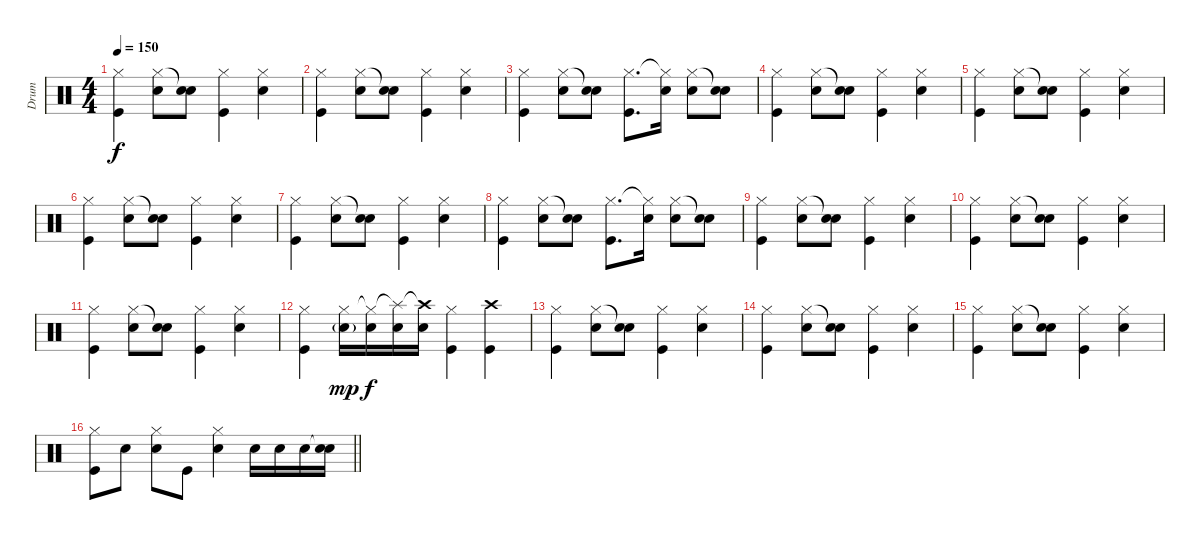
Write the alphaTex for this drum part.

\track ("Drum" "Drum") {instrument percussion}
\staff {score}
\articulation defaults
\ts (4 4)
\tempo 150
\clef neutral
\ks c
("Hi-Hat (closed)" "Kick (hit)").4{dy f} ("Hi-Hat (closed)" "Snare (hit) 2").8 ("Snare (hit)"{t} "Snare (hit) 2").8 ("Hi-Hat (closed)" "Kick (hit)").4 ("Hi-Hat (closed)" "Snare (hit) 2").4 |
("Hi-Hat (closed)" "Kick (hit)").4 ("Hi-Hat (closed)" "Snare (hit) 2").8 ("Snare (hit)"{t} "Snare (hit) 2").8 ("Hi-Hat (closed)" "Kick (hit)").4 ("Hi-Hat (closed)" "Snare (hit) 2").4 |
("Hi-Hat (closed)" "Kick (hit)").4 ("Hi-Hat (closed)" "Snare (hit) 2").8 ("Snare (hit)"{t} "Snare (hit) 2").8 ("Hi-Hat (closed)" "Kick (hit)").8{d} ("Hi-Hat (closed)"{t} "Snare (hit) 2").16 ("Hi-Hat (closed)" "Snare (hit) 2").8 ("Snare (hit)"{t} "Snare (hit) 2").8 |
("Hi-Hat (closed)" "Kick (hit)").4 ("Hi-Hat (closed)" "Snare (hit) 2").8 ("Snare (hit)"{t} "Snare (hit) 2").8 ("Hi-Hat (closed)" "Kick (hit)").4 ("Hi-Hat (closed)" "Snare (hit) 2").4 |
("Hi-Hat (closed)" "Kick (hit)").4 ("Hi-Hat (closed)" "Snare (hit) 2").8 ("Snare (hit)"{t} "Snare (hit) 2").8 ("Hi-Hat (closed)" "Kick (hit)").4 ("Hi-Hat (closed)" "Snare (hit) 2").4 |
("Hi-Hat (closed)" "Kick (hit)").4 ("Hi-Hat (closed)" "Snare (hit) 2").8 ("Snare (hit)"{t} "Snare (hit) 2").8 ("Hi-Hat (closed)" "Kick (hit)").4 ("Hi-Hat (closed)" "Snare (hit) 2").4 |
("Hi-Hat (closed)" "Kick (hit)").4 ("Hi-Hat (closed)" "Snare (hit) 2").8 ("Snare (hit)"{t} "Snare (hit) 2").8 ("Hi-Hat (closed)" "Kick (hit)").4 ("Hi-Hat (closed)" "Snare (hit) 2").4 |
("Hi-Hat (closed)" "Kick (hit)").4 ("Hi-Hat (closed)" "Snare (hit) 2").8 ("Snare (hit)"{t} "Snare (hit) 2").8 ("Hi-Hat (closed)" "Kick (hit)").8{d} ("Hi-Hat (closed)"{t} "Snare (hit) 2").16 ("Hi-Hat (closed)" "Snare (hit) 2").8 ("Snare (hit)"{t} "Snare (hit) 2").8 |
("Hi-Hat (closed)" "Kick (hit)").4 ("Hi-Hat (closed)" "Snare (hit) 2").8 ("Snare (hit)"{t} "Snare (hit) 2").8 ("Hi-Hat (closed)" "Kick (hit)").4 ("Hi-Hat (closed)" "Snare (hit) 2").4 |
("Hi-Hat (closed)" "Kick (hit)").4 ("Hi-Hat (closed)" "Snare (hit) 2").8 ("Snare (hit)"{t} "Snare (hit) 2").8 ("Hi-Hat (closed)" "Kick (hit)").4 ("Hi-Hat (closed)" "Snare (hit) 2").4 |
("Hi-Hat (closed)" "Kick (hit)").4 ("Hi-Hat (closed)" "Snare (hit) 2").8 ("Snare (hit)"{t} "Snare (hit) 2").8 ("Hi-Hat (closed)" "Kick (hit)").4 ("Hi-Hat (closed)" "Snare (hit) 2").4 |
("Hi-Hat (closed)" "Kick (hit)").4 ("Hi-Hat (closed)" "Snare (hit) 2"{g}).16{dy mp} ("Hi-Hat (closed)"{t} "Snare (hit) 2").16{dy f} ("Splash (hit)"{t} "Snare (hit) 2").16 ("Crash high (hit)"{t} "Snare (hit) 2").16 ("Hi-Hat (closed)" "Kick (hit)").4 ("Crash high (hit)" "Kick (hit)").4 |
("Hi-Hat (closed)" "Kick (hit)").4 ("Hi-Hat (closed)" "Snare (hit) 2").8 ("Snare (hit)"{t} "Snare (hit) 2").8 ("Hi-Hat (closed)" "Kick (hit)").4 ("Hi-Hat (closed)" "Snare (hit) 2").4 |
("Hi-Hat (closed)" "Kick (hit)").4 ("Hi-Hat (closed)" "Snare (hit) 2").8 ("Snare (hit)"{t} "Snare (hit) 2").8 ("Hi-Hat (closed)" "Kick (hit)").4 ("Hi-Hat (closed)" "Snare (hit) 2").4 |
("Hi-Hat (closed)" "Kick (hit)").4 ("Hi-Hat (closed)" "Snare (hit) 2").8 ("Snare (hit)"{t} "Snare (hit) 2").8 ("Hi-Hat (closed)" "Kick (hit)").4 ("Hi-Hat (closed)" "Snare (hit) 2").4 |
\barLineRight lightlight
("Hi-Hat (closed)" "Kick (hit)").8 "Snare (hit) 2".8 ("Hi-Hat (closed)" "Snare (hit) 2").8 "Kick (hit)".8 ("Hi-Hat (closed)" "Snare (hit) 2").4 "Snare (hit) 2".16 "Snare (hit) 2".16 "Snare (hit) 2".16 ("Snare (hit)"{t} "Snare (hit) 2").16
